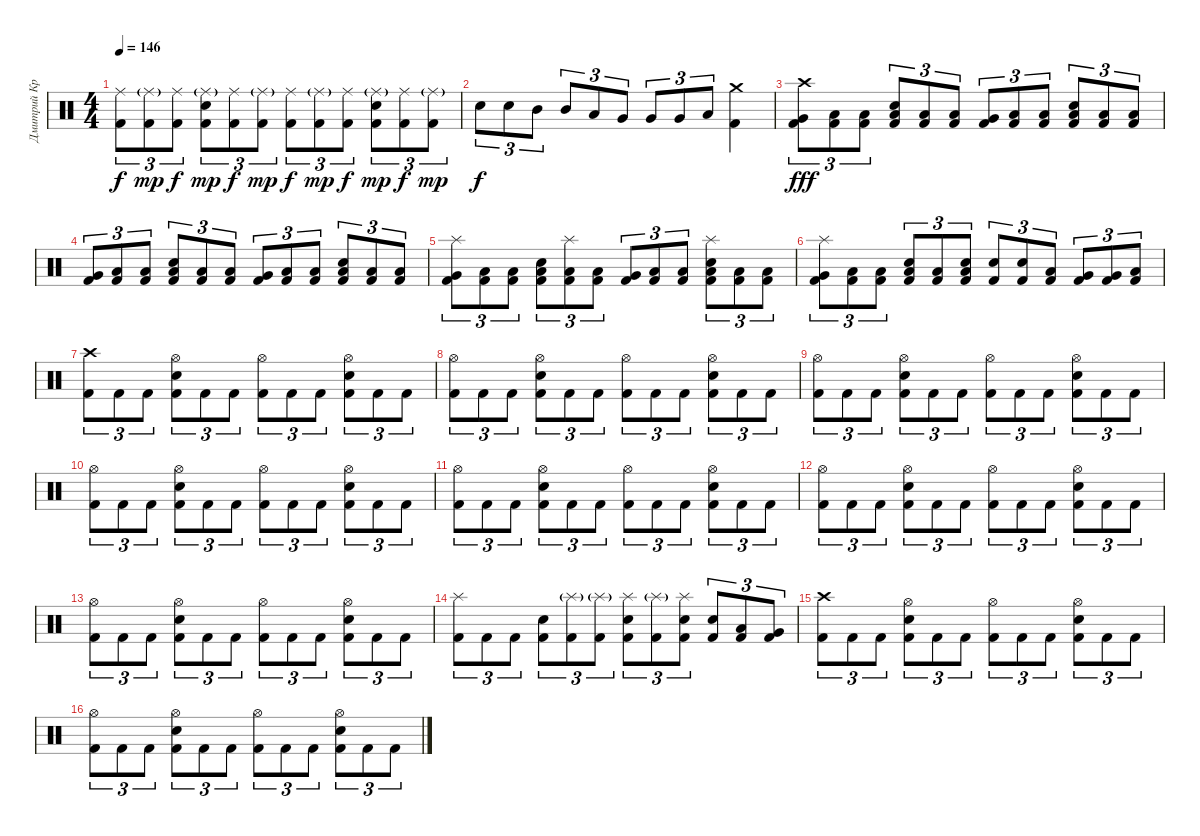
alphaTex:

\track ("Дмитрий Кривенков" "Дмитрий Кр") {instrument percussion}
\staff {score}
\articulation defaults
\ts (4 4)
\tempo 146
\clef neutral
\ks c
("Ride (middle)" "Kick (hit) 2").8{tu (3 2) dy f} ("Ride (middle)"{g} "Kick (hit) 2").8{tu (3 2) dy mp} ("Ride (middle)" "Kick (hit) 2").8{tu (3 2) dy f} ("Ride (middle)"{g} "Electric Snare (hit)" "Kick (hit) 2").8{tu (3 2) dy mp} ("Ride (middle)" "Kick (hit) 2").8{tu (3 2) dy f} ("Ride (middle)"{g} "Kick (hit) 2").8{tu (3 2) dy mp} ("Ride (middle)" "Kick (hit) 2").8{tu (3 2) dy f} ("Ride (middle)"{g} "Kick (hit) 2").8{tu (3 2) dy mp} ("Ride (middle)" "Kick (hit) 2").8{tu (3 2) dy f} ("Ride (middle)"{g} "Electric Snare (hit)" "Kick (hit) 2").8{tu (3 2) dy mp} ("Ride (middle)" "Kick (hit) 2").8{tu (3 2) dy f} ("Ride (middle)"{g} "Kick (hit) 2").8{tu (3 2) dy mp} |
"Electric Snare (hit)".8{tu (3 2) dy f} "Electric Snare (hit)".8{tu (3 2)} "Mid Tom (hit)".8{tu (3 2)} "Mid Tom (hit)".8{tu (3 2)} "Low Tom (hit)".8{tu (3 2)} "Very Low Tom (hit)".8{tu (3 2)} "Very Low Tom (hit)".8{tu (3 2)} "Very Low Tom (hit)".8{tu (3 2)} "Low Floor Tom (hit)".8{tu (3 2)} ("Crash medium (hit)" "Kick (hit) 2").4 |
("Crash high (hit)" "Very Low Tom (hit)" "Kick (hit) 2").8{tu (3 2) dy fff} ("Low Floor Tom (hit)" "Kick (hit) 2").8{tu (3 2)} ("Low Floor Tom (hit)" "Kick (hit) 2").8{tu (3 2)} ("Electric Snare (hit)" "Low Floor Tom (hit)" "Kick (hit) 2").8{tu (3 2)} ("Low Floor Tom (hit)" "Kick (hit) 2").8{tu (3 2)} ("Low Floor Tom (hit)" "Kick (hit) 2").8{tu (3 2)} ("Very Low Tom (hit)" "Kick (hit) 2").8{tu (3 2)} ("Low Floor Tom (hit)" "Kick (hit) 2").8{tu (3 2)} ("Low Floor Tom (hit)" "Kick (hit) 2").8{tu (3 2)} ("Electric Snare (hit)" "Low Floor Tom (hit)" "Kick (hit) 2").8{tu (3 2)} ("Low Floor Tom (hit)" "Kick (hit) 2").8{tu (3 2)} ("Low Floor Tom (hit)" "Kick (hit) 2").8{tu (3 2)} |
("Very Low Tom (hit)" "Kick (hit) 2").8{tu (3 2)} ("Low Floor Tom (hit)" "Kick (hit) 2").8{tu (3 2)} ("Low Floor Tom (hit)" "Kick (hit) 2").8{tu (3 2)} ("Electric Snare (hit)" "Low Floor Tom (hit)" "Kick (hit) 2").8{tu (3 2)} ("Low Floor Tom (hit)" "Kick (hit) 2").8{tu (3 2)} ("Low Floor Tom (hit)" "Kick (hit) 2").8{tu (3 2)} ("Very Low Tom (hit)" "Kick (hit) 2").8{tu (3 2)} ("Low Floor Tom (hit)" "Kick (hit) 2").8{tu (3 2)} ("Low Floor Tom (hit)" "Kick (hit) 2").8{tu (3 2)} ("Electric Snare (hit)" "Low Floor Tom (hit)" "Kick (hit) 2").8{tu (3 2)} ("Low Floor Tom (hit)" "Kick (hit) 2").8{tu (3 2)} ("Low Floor Tom (hit)" "Kick (hit) 2").8{tu (3 2)} |
("Splash (hit)" "Very Low Tom (hit)" "Kick (hit) 2").8{tu (3 2)} ("Low Floor Tom (hit)" "Kick (hit) 2").8{tu (3 2)} ("Low Floor Tom (hit)" "Kick (hit) 2").8{tu (3 2)} ("Electric Snare (hit)" "Low Floor Tom (hit)" "Kick (hit) 2").8{tu (3 2)} ("Splash (hit)" "Low Floor Tom (hit)" "Kick (hit) 2").8{tu (3 2)} ("Low Floor Tom (hit)" "Kick (hit) 2").8{tu (3 2)} ("Very Low Tom (hit)" "Kick (hit) 2").8{tu (3 2)} ("Low Floor Tom (hit)" "Kick (hit) 2").8{tu (3 2)} ("Low Floor Tom (hit)" "Kick (hit) 2").8{tu (3 2)} ("Splash (hit)" "Electric Snare (hit)" "Low Floor Tom (hit)" "Kick (hit) 2").8{tu (3 2)} ("Low Floor Tom (hit)" "Kick (hit) 2").8{tu (3 2)} ("Low Floor Tom (hit)" "Kick (hit) 2").8{tu (3 2)} |
("Splash (hit)" "Very Low Tom (hit)" "Kick (hit) 2").8{tu (3 2)} ("Low Floor Tom (hit)" "Kick (hit) 2").8{tu (3 2)} ("Low Floor Tom (hit)" "Kick (hit) 2").8{tu (3 2)} ("Electric Snare (hit)" "Low Floor Tom (hit)" "Kick (hit) 2").8{tu (3 2)} ("Low Floor Tom (hit)" "Kick (hit) 2").8{tu (3 2)} ("Electric Snare (hit)" "Low Floor Tom (hit)" "Kick (hit) 2").8{tu (3 2)} ("Electric Snare (hit)" "Kick (hit) 2").8{tu (3 2)} ("Electric Snare (hit)" "Kick (hit) 2").8{tu (3 2)} ("Low Tom (hit)" "Kick (hit) 2").8{tu (3 2)} ("Very Low Tom (hit)" "Kick (hit) 2").8{tu (3 2)} ("Very Low Tom (hit)" "Kick (hit) 2").8{tu (3 2)} ("Low Floor Tom (hit)" "Kick (hit) 2").8{tu (3 2)} |
("Crash high (hit)" "Kick (hit) 2").8{tu (3 2)} "Kick (hit) 2".8{tu (3 2)} "Kick (hit) 2".8{tu (3 2)} ("Hi-Hat (open)" "Electric Snare (hit)" "Kick (hit) 2").8{tu (3 2)} "Kick (hit) 2".8{tu (3 2)} "Kick (hit) 2".8{tu (3 2)} ("Hi-Hat (open)" "Kick (hit) 2").8{tu (3 2)} "Kick (hit) 2".8{tu (3 2)} "Kick (hit) 2".8{tu (3 2)} ("Hi-Hat (open)" "Electric Snare (hit)" "Kick (hit) 2").8{tu (3 2)} "Kick (hit) 2".8{tu (3 2)} "Kick (hit) 2".8{tu (3 2)} |
("Hi-Hat (open)" "Kick (hit) 2").8{tu (3 2)} "Kick (hit) 2".8{tu (3 2)} "Kick (hit) 2".8{tu (3 2)} ("Hi-Hat (open)" "Electric Snare (hit)" "Kick (hit) 2").8{tu (3 2)} "Kick (hit) 2".8{tu (3 2)} "Kick (hit) 2".8{tu (3 2)} ("Hi-Hat (open)" "Kick (hit) 2").8{tu (3 2)} "Kick (hit) 2".8{tu (3 2)} "Kick (hit) 2".8{tu (3 2)} ("Hi-Hat (open)" "Electric Snare (hit)" "Kick (hit) 2").8{tu (3 2)} "Kick (hit) 2".8{tu (3 2)} "Kick (hit) 2".8{tu (3 2)} |
("Hi-Hat (open)" "Kick (hit) 2").8{tu (3 2)} "Kick (hit) 2".8{tu (3 2)} "Kick (hit) 2".8{tu (3 2)} ("Hi-Hat (open)" "Electric Snare (hit)" "Kick (hit) 2").8{tu (3 2)} "Kick (hit) 2".8{tu (3 2)} "Kick (hit) 2".8{tu (3 2)} ("Hi-Hat (open)" "Kick (hit) 2").8{tu (3 2)} "Kick (hit) 2".8{tu (3 2)} "Kick (hit) 2".8{tu (3 2)} ("Hi-Hat (open)" "Electric Snare (hit)" "Kick (hit) 2").8{tu (3 2)} "Kick (hit) 2".8{tu (3 2)} "Kick (hit) 2".8{tu (3 2)} |
("Hi-Hat (open)" "Kick (hit) 2").8{tu (3 2)} "Kick (hit) 2".8{tu (3 2)} "Kick (hit) 2".8{tu (3 2)} ("Hi-Hat (open)" "Electric Snare (hit)" "Kick (hit) 2").8{tu (3 2)} "Kick (hit) 2".8{tu (3 2)} "Kick (hit) 2".8{tu (3 2)} ("Hi-Hat (open)" "Kick (hit) 2").8{tu (3 2)} "Kick (hit) 2".8{tu (3 2)} "Kick (hit) 2".8{tu (3 2)} ("Hi-Hat (open)" "Electric Snare (hit)" "Kick (hit) 2").8{tu (3 2)} "Kick (hit) 2".8{tu (3 2)} "Kick (hit) 2".8{tu (3 2)} |
("Hi-Hat (open)" "Kick (hit) 2").8{tu (3 2)} "Kick (hit) 2".8{tu (3 2)} "Kick (hit) 2".8{tu (3 2)} ("Hi-Hat (open)" "Electric Snare (hit)" "Kick (hit) 2").8{tu (3 2)} "Kick (hit) 2".8{tu (3 2)} "Kick (hit) 2".8{tu (3 2)} ("Hi-Hat (open)" "Kick (hit) 2").8{tu (3 2)} "Kick (hit) 2".8{tu (3 2)} "Kick (hit) 2".8{tu (3 2)} ("Hi-Hat (open)" "Electric Snare (hit)" "Kick (hit) 2").8{tu (3 2)} "Kick (hit) 2".8{tu (3 2)} "Kick (hit) 2".8{tu (3 2)} |
("Hi-Hat (open)" "Kick (hit) 2").8{tu (3 2)} "Kick (hit) 2".8{tu (3 2)} "Kick (hit) 2".8{tu (3 2)} ("Hi-Hat (open)" "Electric Snare (hit)" "Kick (hit) 2").8{tu (3 2)} "Kick (hit) 2".8{tu (3 2)} "Kick (hit) 2".8{tu (3 2)} ("Hi-Hat (open)" "Kick (hit) 2").8{tu (3 2)} "Kick (hit) 2".8{tu (3 2)} "Kick (hit) 2".8{tu (3 2)} ("Hi-Hat (open)" "Electric Snare (hit)" "Kick (hit) 2").8{tu (3 2)} "Kick (hit) 2".8{tu (3 2)} "Kick (hit) 2".8{tu (3 2)} |
("Hi-Hat (open)" "Kick (hit) 2").8{tu (3 2)} "Kick (hit) 2".8{tu (3 2)} "Kick (hit) 2".8{tu (3 2)} ("Hi-Hat (open)" "Electric Snare (hit)" "Kick (hit) 2").8{tu (3 2)} "Kick (hit) 2".8{tu (3 2)} "Kick (hit) 2".8{tu (3 2)} ("Hi-Hat (open)" "Kick (hit) 2").8{tu (3 2)} "Kick (hit) 2".8{tu (3 2)} "Kick (hit) 2".8{tu (3 2)} ("Hi-Hat (open)" "Electric Snare (hit)" "Kick (hit) 2").8{tu (3 2)} "Kick (hit) 2".8{tu (3 2)} "Kick (hit) 2".8{tu (3 2)} |
("Splash (hit)" "Kick (hit) 2").8{tu (3 2)} "Kick (hit) 2".8{tu (3 2)} "Kick (hit) 2".8{tu (3 2)} ("Electric Snare (hit)" "Kick (hit) 2").8{tu (3 2)} ("Splash (hit)"{g} "Kick (hit) 2").8{tu (3 2)} ("Splash (hit)"{g} "Kick (hit) 2").8{tu (3 2)} ("Splash (hit)" "Electric Snare (hit)" "Kick (hit) 2").8{tu (3 2)} ("Splash (hit)"{g} "Kick (hit) 2").8{tu (3 2)} ("Splash (hit)" "Electric Snare (hit)" "Kick (hit) 2").8{tu (3 2)} ("Electric Snare (hit)" "Kick (hit) 2").8{tu (3 2)} ("Low Tom (hit)" "Kick (hit) 2").8{tu (3 2)} ("Very Low Tom (hit)" "Kick (hit) 2").8{tu (3 2)} |
("Crash high (hit)" "Kick (hit) 2").8{tu (3 2)} "Kick (hit) 2".8{tu (3 2)} "Kick (hit) 2".8{tu (3 2)} ("Hi-Hat (open)" "Electric Snare (hit)" "Kick (hit) 2").8{tu (3 2)} "Kick (hit) 2".8{tu (3 2)} "Kick (hit) 2".8{tu (3 2)} ("Hi-Hat (open)" "Kick (hit) 2").8{tu (3 2)} "Kick (hit) 2".8{tu (3 2)} "Kick (hit) 2".8{tu (3 2)} ("Hi-Hat (open)" "Electric Snare (hit)" "Kick (hit) 2").8{tu (3 2)} "Kick (hit) 2".8{tu (3 2)} "Kick (hit) 2".8{tu (3 2)} |
("Hi-Hat (open)" "Kick (hit) 2").8{tu (3 2)} "Kick (hit) 2".8{tu (3 2)} "Kick (hit) 2".8{tu (3 2)} ("Hi-Hat (open)" "Electric Snare (hit)" "Kick (hit) 2").8{tu (3 2)} "Kick (hit) 2".8{tu (3 2)} "Kick (hit) 2".8{tu (3 2)} ("Hi-Hat (open)" "Kick (hit) 2").8{tu (3 2)} "Kick (hit) 2".8{tu (3 2)} "Kick (hit) 2".8{tu (3 2)} ("Hi-Hat (open)" "Electric Snare (hit)" "Kick (hit) 2").8{tu (3 2)} "Kick (hit) 2".8{tu (3 2)} "Kick (hit) 2".8{tu (3 2)}
